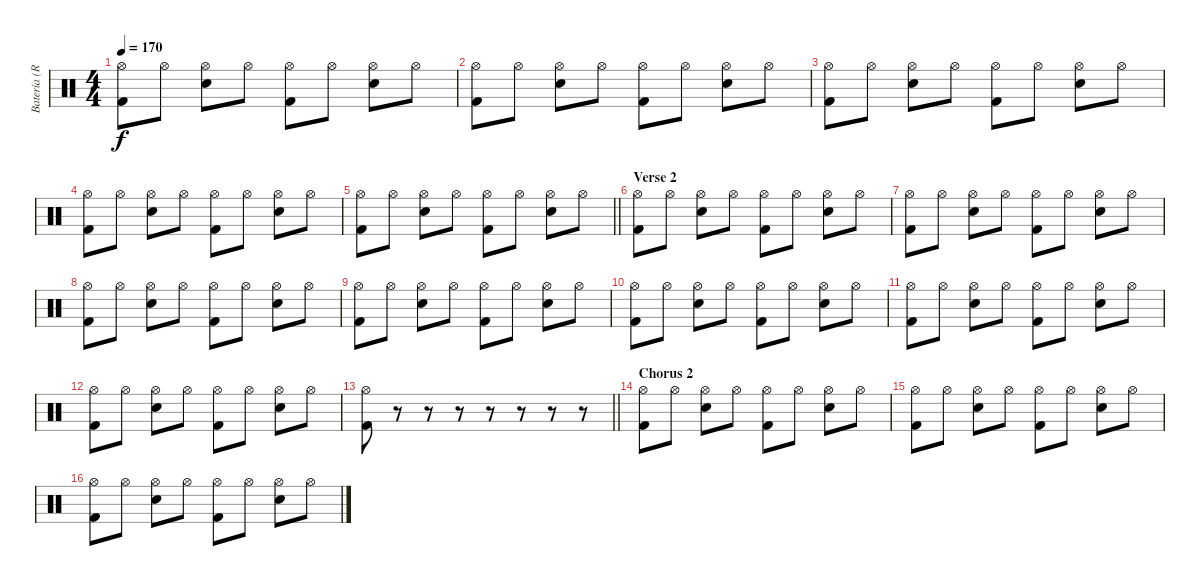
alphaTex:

\track ("Batería (Richie)" "Batería (R") {instrument percussion}
\staff {score}
\articulation defaults
\ts (4 4)
\tempo 170
\clef neutral
\ks c
("Hi-Hat (open)" "Kick (hit) 2").8{dy f} "Hi-Hat (open)".8 ("Hi-Hat (open)" "Snare (hit) 2").8 "Hi-Hat (open)".8 ("Hi-Hat (open)" "Kick (hit) 2").8 "Hi-Hat (open)".8 ("Hi-Hat (open)" "Snare (hit) 2").8 "Hi-Hat (open)".8 |
("Hi-Hat (open)" "Kick (hit) 2").8 "Hi-Hat (open)".8 ("Hi-Hat (open)" "Snare (hit) 2").8 "Hi-Hat (open)".8 ("Hi-Hat (open)" "Kick (hit) 2").8 "Hi-Hat (open)".8 ("Hi-Hat (open)" "Snare (hit) 2").8 "Hi-Hat (open)".8 |
("Hi-Hat (open)" "Kick (hit) 2").8 "Hi-Hat (open)".8 ("Hi-Hat (open)" "Snare (hit) 2").8 "Hi-Hat (open)".8 ("Hi-Hat (open)" "Kick (hit) 2").8 "Hi-Hat (open)".8 ("Hi-Hat (open)" "Snare (hit) 2").8 "Hi-Hat (open)".8 |
("Hi-Hat (open)" "Kick (hit) 2").8 "Hi-Hat (open)".8 ("Hi-Hat (open)" "Snare (hit) 2").8 "Hi-Hat (open)".8 ("Hi-Hat (open)" "Kick (hit) 2").8 "Hi-Hat (open)".8 ("Hi-Hat (open)" "Snare (hit) 2").8 "Hi-Hat (open)".8 |
\barLineRight lightlight
("Hi-Hat (open)" "Kick (hit) 2").8 "Hi-Hat (open)".8 ("Hi-Hat (open)" "Snare (hit) 2").8 "Hi-Hat (open)".8 ("Hi-Hat (open)" "Kick (hit) 2").8 "Hi-Hat (open)".8 ("Hi-Hat (open)" "Snare (hit) 2").8 "Hi-Hat (open)".8 |
\section ("" "Verse 2")
("Hi-Hat (open)" "Kick (hit) 2").8 "Hi-Hat (open)".8 ("Hi-Hat (open)" "Snare (hit) 2").8 "Hi-Hat (open)".8 ("Hi-Hat (open)" "Kick (hit) 2").8 "Hi-Hat (open)".8 ("Hi-Hat (open)" "Snare (hit) 2").8 "Hi-Hat (open)".8 |
("Hi-Hat (open)" "Kick (hit) 2").8 "Hi-Hat (open)".8 ("Hi-Hat (open)" "Snare (hit) 2").8 "Hi-Hat (open)".8 ("Hi-Hat (open)" "Kick (hit) 2").8 "Hi-Hat (open)".8 ("Hi-Hat (open)" "Snare (hit) 2").8 "Hi-Hat (open)".8 |
("Hi-Hat (open)" "Kick (hit) 2").8 "Hi-Hat (open)".8 ("Hi-Hat (open)" "Snare (hit) 2").8 "Hi-Hat (open)".8 ("Hi-Hat (open)" "Kick (hit) 2").8 "Hi-Hat (open)".8 ("Hi-Hat (open)" "Snare (hit) 2").8 "Hi-Hat (open)".8 |
("Hi-Hat (open)" "Kick (hit) 2").8 "Hi-Hat (open)".8 ("Hi-Hat (open)" "Snare (hit) 2").8 "Hi-Hat (open)".8 ("Hi-Hat (open)" "Kick (hit) 2").8 "Hi-Hat (open)".8 ("Hi-Hat (open)" "Snare (hit) 2").8 "Hi-Hat (open)".8 |
("Hi-Hat (open)" "Kick (hit) 2").8 "Hi-Hat (open)".8 ("Hi-Hat (open)" "Snare (hit) 2").8 "Hi-Hat (open)".8 ("Hi-Hat (open)" "Kick (hit) 2").8 "Hi-Hat (open)".8 ("Hi-Hat (open)" "Snare (hit) 2").8 "Hi-Hat (open)".8 |
("Hi-Hat (open)" "Kick (hit) 2").8 "Hi-Hat (open)".8 ("Hi-Hat (open)" "Snare (hit) 2").8 "Hi-Hat (open)".8 ("Hi-Hat (open)" "Kick (hit) 2").8 "Hi-Hat (open)".8 ("Hi-Hat (open)" "Snare (hit) 2").8 "Hi-Hat (open)".8 |
("Hi-Hat (open)" "Kick (hit) 2").8 "Hi-Hat (open)".8 ("Hi-Hat (open)" "Snare (hit) 2").8 "Hi-Hat (open)".8 ("Hi-Hat (open)" "Kick (hit) 2").8 "Hi-Hat (open)".8 ("Hi-Hat (open)" "Snare (hit) 2").8 "Hi-Hat (open)".8 |
\barLineRight lightlight
("Hi-Hat (open)" "Kick (hit) 2").8 r.8 r.8 r.8 r.8 r.8 r.8 r.8 |
\section ("" "Chorus 2")
("Hi-Hat (open)" "Kick (hit) 2").8 "Hi-Hat (open)".8 ("Hi-Hat (open)" "Snare (hit) 2").8 "Hi-Hat (open)".8 ("Hi-Hat (open)" "Kick (hit) 2").8 "Hi-Hat (open)".8 ("Hi-Hat (open)" "Snare (hit) 2").8 "Hi-Hat (open)".8 |
("Hi-Hat (open)" "Kick (hit) 2").8 "Hi-Hat (open)".8 ("Hi-Hat (open)" "Snare (hit) 2").8 "Hi-Hat (open)".8 ("Hi-Hat (open)" "Kick (hit) 2").8 "Hi-Hat (open)".8 ("Hi-Hat (open)" "Snare (hit) 2").8 "Hi-Hat (open)".8 |
("Hi-Hat (open)" "Kick (hit) 2").8 "Hi-Hat (open)".8 ("Hi-Hat (open)" "Snare (hit) 2").8 "Hi-Hat (open)".8 ("Hi-Hat (open)" "Kick (hit) 2").8 "Hi-Hat (open)".8 ("Hi-Hat (open)" "Snare (hit) 2").8 "Hi-Hat (open)".8
